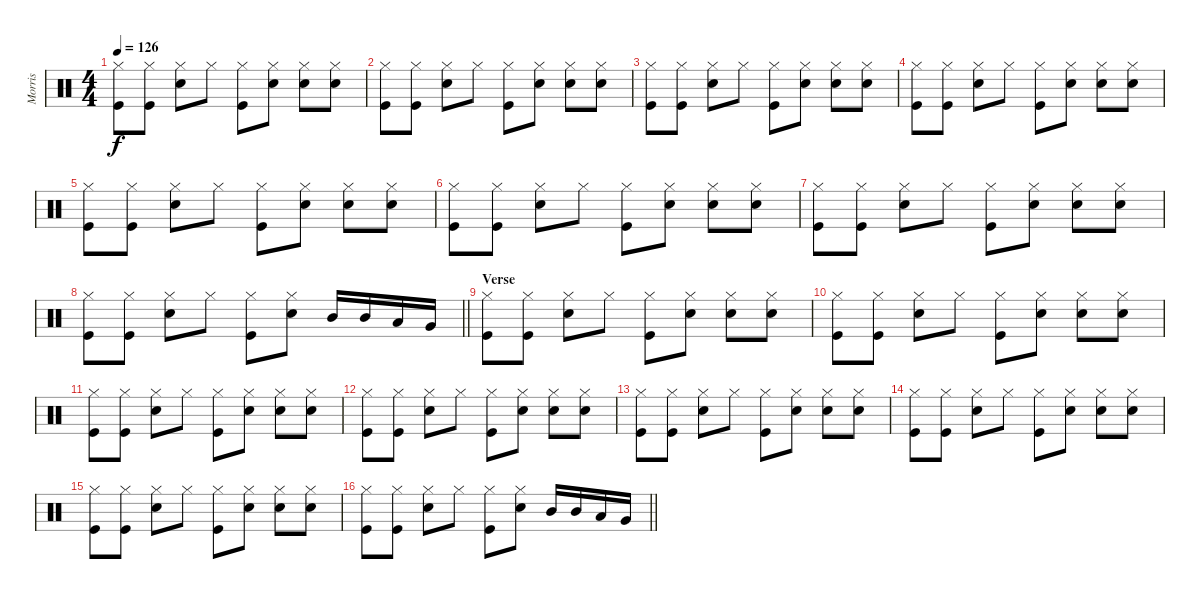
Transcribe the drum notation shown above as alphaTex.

\track ("Morris" "Morris") {instrument percussion}
\staff {score}
\articulation defaults
\ts (4 4)
\tempo 126
\clef neutral
\ks c
("Hi-Hat (closed)" "Kick (hit)").8{dy f} ("Hi-Hat (closed)" "Kick (hit)").8 ("Hi-Hat (closed)" "Electric Snare (hit)").8 "Hi-Hat (closed)".8 ("Hi-Hat (closed)" "Kick (hit)").8 ("Hi-Hat (closed)" "Electric Snare (hit)").8 ("Hi-Hat (closed)" "Electric Snare (hit)").8 ("Hi-Hat (closed)" "Electric Snare (hit)").8 |
("Hi-Hat (closed)" "Kick (hit)").8 ("Hi-Hat (closed)" "Kick (hit)").8 ("Hi-Hat (closed)" "Electric Snare (hit)").8 "Hi-Hat (closed)".8 ("Hi-Hat (closed)" "Kick (hit)").8 ("Hi-Hat (closed)" "Electric Snare (hit)").8 ("Hi-Hat (closed)" "Electric Snare (hit)").8 ("Hi-Hat (closed)" "Electric Snare (hit)").8 |
("Hi-Hat (closed)" "Kick (hit)").8 ("Hi-Hat (closed)" "Kick (hit)").8 ("Hi-Hat (closed)" "Electric Snare (hit)").8 "Hi-Hat (closed)".8 ("Hi-Hat (closed)" "Kick (hit)").8 ("Hi-Hat (closed)" "Electric Snare (hit)").8 ("Hi-Hat (closed)" "Electric Snare (hit)").8 ("Hi-Hat (closed)" "Electric Snare (hit)").8 |
("Hi-Hat (closed)" "Kick (hit)").8 ("Hi-Hat (closed)" "Kick (hit)").8 ("Hi-Hat (closed)" "Electric Snare (hit)").8 "Hi-Hat (closed)".8 ("Hi-Hat (closed)" "Kick (hit)").8 ("Hi-Hat (closed)" "Electric Snare (hit)").8 ("Hi-Hat (closed)" "Electric Snare (hit)").8 ("Hi-Hat (closed)" "Electric Snare (hit)").8 |
("Hi-Hat (closed)" "Kick (hit)").8 ("Hi-Hat (closed)" "Kick (hit)").8 ("Hi-Hat (closed)" "Electric Snare (hit)").8 "Hi-Hat (closed)".8 ("Hi-Hat (closed)" "Kick (hit)").8 ("Hi-Hat (closed)" "Electric Snare (hit)").8 ("Hi-Hat (closed)" "Electric Snare (hit)").8 ("Hi-Hat (closed)" "Electric Snare (hit)").8 |
("Hi-Hat (closed)" "Kick (hit)").8 ("Hi-Hat (closed)" "Kick (hit)").8 ("Hi-Hat (closed)" "Electric Snare (hit)").8 "Hi-Hat (closed)".8 ("Hi-Hat (closed)" "Kick (hit)").8 ("Hi-Hat (closed)" "Electric Snare (hit)").8 ("Hi-Hat (closed)" "Electric Snare (hit)").8 ("Hi-Hat (closed)" "Electric Snare (hit)").8 |
("Hi-Hat (closed)" "Kick (hit)").8 ("Hi-Hat (closed)" "Kick (hit)").8 ("Hi-Hat (closed)" "Electric Snare (hit)").8 "Hi-Hat (closed)".8 ("Hi-Hat (closed)" "Kick (hit)").8 ("Hi-Hat (closed)" "Electric Snare (hit)").8 ("Hi-Hat (closed)" "Electric Snare (hit)").8 ("Hi-Hat (closed)" "Electric Snare (hit)").8 |
\barLineRight lightlight
("Hi-Hat (closed)" "Kick (hit)").8 ("Hi-Hat (closed)" "Kick (hit)").8 ("Hi-Hat (closed)" "Electric Snare (hit)").8 "Hi-Hat (closed)".8 ("Hi-Hat (closed)" "Kick (hit)").8 ("Hi-Hat (closed)" "Electric Snare (hit)").8 "Mid Tom (hit)".16 "Mid Tom (hit)".16 "Low Tom (hit)".16 "Very Low Tom (hit)".16 |
\section ("" "Verse")
("Hi-Hat (closed)" "Kick (hit)").8 ("Hi-Hat (closed)" "Kick (hit)").8 ("Hi-Hat (closed)" "Electric Snare (hit)").8 "Hi-Hat (closed)".8 ("Hi-Hat (closed)" "Kick (hit)").8 ("Hi-Hat (closed)" "Electric Snare (hit)").8 ("Hi-Hat (closed)" "Electric Snare (hit)").8 ("Hi-Hat (closed)" "Electric Snare (hit)").8 |
("Hi-Hat (closed)" "Kick (hit)").8 ("Hi-Hat (closed)" "Kick (hit)").8 ("Hi-Hat (closed)" "Electric Snare (hit)").8 "Hi-Hat (closed)".8 ("Hi-Hat (closed)" "Kick (hit)").8 ("Hi-Hat (closed)" "Electric Snare (hit)").8 ("Hi-Hat (closed)" "Electric Snare (hit)").8 ("Hi-Hat (closed)" "Electric Snare (hit)").8 |
("Hi-Hat (closed)" "Kick (hit)").8 ("Hi-Hat (closed)" "Kick (hit)").8 ("Hi-Hat (closed)" "Electric Snare (hit)").8 "Hi-Hat (closed)".8 ("Hi-Hat (closed)" "Kick (hit)").8 ("Hi-Hat (closed)" "Electric Snare (hit)").8 ("Hi-Hat (closed)" "Electric Snare (hit)").8 ("Hi-Hat (closed)" "Electric Snare (hit)").8 |
("Hi-Hat (closed)" "Kick (hit)").8 ("Hi-Hat (closed)" "Kick (hit)").8 ("Hi-Hat (closed)" "Electric Snare (hit)").8 "Hi-Hat (closed)".8 ("Hi-Hat (closed)" "Kick (hit)").8 ("Hi-Hat (closed)" "Electric Snare (hit)").8 ("Hi-Hat (closed)" "Electric Snare (hit)").8 ("Hi-Hat (closed)" "Electric Snare (hit)").8 |
("Hi-Hat (closed)" "Kick (hit)").8 ("Hi-Hat (closed)" "Kick (hit)").8 ("Hi-Hat (closed)" "Electric Snare (hit)").8 "Hi-Hat (closed)".8 ("Hi-Hat (closed)" "Kick (hit)").8 ("Hi-Hat (closed)" "Electric Snare (hit)").8 ("Hi-Hat (closed)" "Electric Snare (hit)").8 ("Hi-Hat (closed)" "Electric Snare (hit)").8 |
("Hi-Hat (closed)" "Kick (hit)").8 ("Hi-Hat (closed)" "Kick (hit)").8 ("Hi-Hat (closed)" "Electric Snare (hit)").8 "Hi-Hat (closed)".8 ("Hi-Hat (closed)" "Kick (hit)").8 ("Hi-Hat (closed)" "Electric Snare (hit)").8 ("Hi-Hat (closed)" "Electric Snare (hit)").8 ("Hi-Hat (closed)" "Electric Snare (hit)").8 |
("Hi-Hat (closed)" "Kick (hit)").8 ("Hi-Hat (closed)" "Kick (hit)").8 ("Hi-Hat (closed)" "Electric Snare (hit)").8 "Hi-Hat (closed)".8 ("Hi-Hat (closed)" "Kick (hit)").8 ("Hi-Hat (closed)" "Electric Snare (hit)").8 ("Hi-Hat (closed)" "Electric Snare (hit)").8 ("Hi-Hat (closed)" "Electric Snare (hit)").8 |
\barLineRight lightlight
("Hi-Hat (closed)" "Kick (hit)").8 ("Hi-Hat (closed)" "Kick (hit)").8 ("Hi-Hat (closed)" "Electric Snare (hit)").8 "Hi-Hat (closed)".8 ("Hi-Hat (closed)" "Kick (hit)").8 ("Hi-Hat (closed)" "Electric Snare (hit)").8 "Mid Tom (hit)".16 "Mid Tom (hit)".16 "Low Tom (hit)".16 "Very Low Tom (hit)".16
